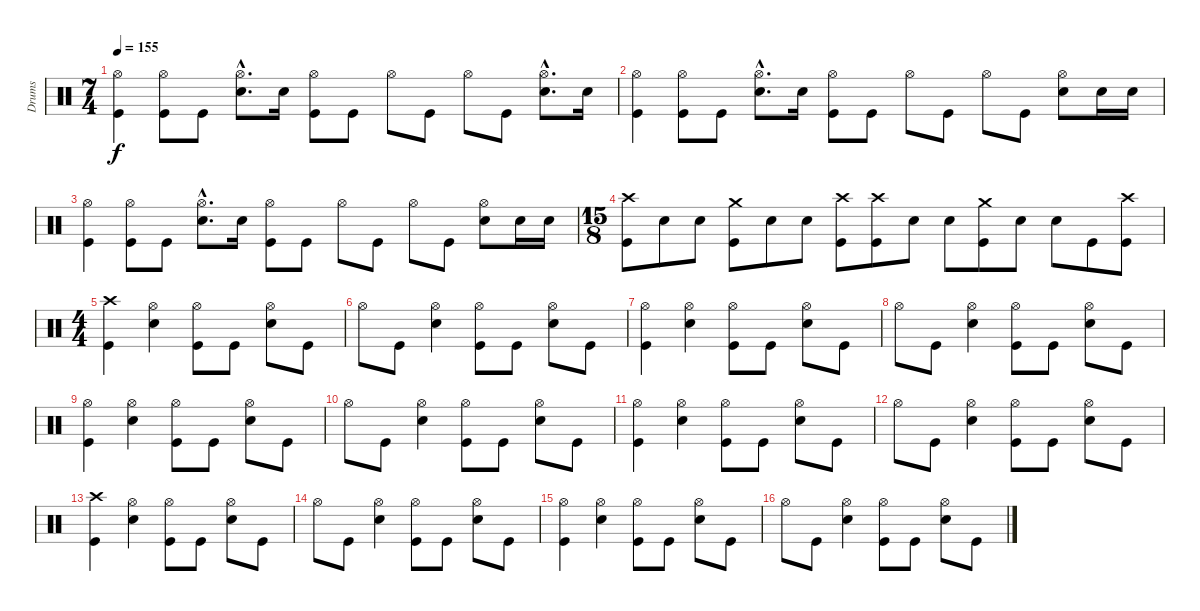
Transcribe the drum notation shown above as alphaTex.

\track ("Drums" "Drums") {instrument percussion}
\staff {score}
\articulation defaults
\ts (7 4)
\tempo 155
\clef neutral
\ks c
("Kick (hit)" "Hi-Hat (open)").4{dy f} ("Kick (hit)" "Hi-Hat (open)").8 "Kick (hit)".8 ("Snare (hit) 2"{hac} "Hi-Hat (open)"{hac}).8{d} "Snare (hit) 2".16 ("Kick (hit)" "Hi-Hat (open)").8 "Kick (hit)".8 "Hi-Hat (open)".8 "Kick (hit)".8 "Hi-Hat (open)".8 "Kick (hit)".8 ("Snare (hit) 2"{hac} "Hi-Hat (open)"{hac}).8{d} "Snare (hit) 2".16 |
("Kick (hit)" "Hi-Hat (open)").4 ("Kick (hit)" "Hi-Hat (open)").8 "Kick (hit)".8 ("Snare (hit) 2"{hac} "Hi-Hat (open)"{hac}).8{d} "Snare (hit) 2".16 ("Kick (hit)" "Hi-Hat (open)").8 "Kick (hit)".8 "Hi-Hat (open)".8 "Kick (hit)".8 "Hi-Hat (open)".8 "Kick (hit)".8 ("Snare (hit) 2" "Hi-Hat (open)").8 "Snare (hit) 2".16 "Snare (hit) 2".16 |
("Kick (hit)" "Hi-Hat (open)").4 ("Kick (hit)" "Hi-Hat (open)").8 "Kick (hit)".8 ("Snare (hit) 2"{hac} "Hi-Hat (open)"{hac}).8{d} "Snare (hit) 2".16 ("Kick (hit)" "Hi-Hat (open)").8 "Kick (hit)".8 "Hi-Hat (open)".8 "Kick (hit)".8 "Hi-Hat (open)".8 "Kick (hit)".8 ("Snare (hit) 2" "Hi-Hat (open)").8 "Snare (hit) 2".16 "Snare (hit) 2".16 |
\ts (15 8)
("Kick (hit)" "Crash high (hit)").8 "Snare (hit) 2".8 "Snare (hit) 2".8 ("Kick (hit)" "Crash medium (hit)").8 "Snare (hit) 2".8 "Snare (hit) 2".8 ("Kick (hit)" "Crash high (hit)").8 ("Kick (hit)" "Crash high (hit)").8 "Snare (hit) 2".8 "Snare (hit) 2".8 ("Kick (hit)" "Crash medium (hit)").8 "Snare (hit) 2".8 "Snare (hit) 2".8 "Kick (hit)".8 ("Kick (hit)" "Crash high (hit)").8 |
\ts (4 4)
("Kick (hit)" "Crash high (hit)").4 ("Snare (hit) 2" "Hi-Hat (open)").4 ("Kick (hit)" "Hi-Hat (open)").8 "Kick (hit)".8 ("Snare (hit) 2" "Hi-Hat (open)").8 "Kick (hit)".8 |
"Hi-Hat (open)".8 "Kick (hit)".8 ("Snare (hit) 2" "Hi-Hat (open)").4 ("Kick (hit)" "Hi-Hat (open)").8 "Kick (hit)".8 ("Snare (hit) 2" "Hi-Hat (open)").8 "Kick (hit)".8 |
("Kick (hit)" "Hi-Hat (open)").4 ("Snare (hit) 2" "Hi-Hat (open)").4 ("Kick (hit)" "Hi-Hat (open)").8 "Kick (hit)".8 ("Snare (hit) 2" "Hi-Hat (open)").8 "Kick (hit)".8 |
"Hi-Hat (open)".8 "Kick (hit)".8 ("Snare (hit) 2" "Hi-Hat (open)").4 ("Kick (hit)" "Hi-Hat (open)").8 "Kick (hit)".8 ("Snare (hit) 2" "Hi-Hat (open)").8 "Kick (hit)".8 |
("Kick (hit)" "Hi-Hat (open)").4 ("Snare (hit) 2" "Hi-Hat (open)").4 ("Kick (hit)" "Hi-Hat (open)").8 "Kick (hit)".8 ("Snare (hit) 2" "Hi-Hat (open)").8 "Kick (hit)".8 |
"Hi-Hat (open)".8 "Kick (hit)".8 ("Snare (hit) 2" "Hi-Hat (open)").4 ("Kick (hit)" "Hi-Hat (open)").8 "Kick (hit)".8 ("Snare (hit) 2" "Hi-Hat (open)").8 "Kick (hit)".8 |
("Kick (hit)" "Hi-Hat (open)").4 ("Snare (hit) 2" "Hi-Hat (open)").4 ("Kick (hit)" "Hi-Hat (open)").8 "Kick (hit)".8 ("Snare (hit) 2" "Hi-Hat (open)").8 "Kick (hit)".8 |
"Hi-Hat (open)".8 "Kick (hit)".8 ("Snare (hit) 2" "Hi-Hat (open)").4 ("Kick (hit)" "Hi-Hat (open)").8 "Kick (hit)".8 ("Snare (hit) 2" "Hi-Hat (open)").8 "Kick (hit)".8 |
("Kick (hit)" "Crash high (hit)").4 ("Snare (hit) 2" "Hi-Hat (open)").4 ("Kick (hit)" "Hi-Hat (open)").8 "Kick (hit)".8 ("Snare (hit) 2" "Hi-Hat (open)").8 "Kick (hit)".8 |
"Hi-Hat (open)".8 "Kick (hit)".8 ("Snare (hit) 2" "Hi-Hat (open)").4 ("Kick (hit)" "Hi-Hat (open)").8 "Kick (hit)".8 ("Snare (hit) 2" "Hi-Hat (open)").8 "Kick (hit)".8 |
("Kick (hit)" "Hi-Hat (open)").4 ("Snare (hit) 2" "Hi-Hat (open)").4 ("Kick (hit)" "Hi-Hat (open)").8 "Kick (hit)".8 ("Snare (hit) 2" "Hi-Hat (open)").8 "Kick (hit)".8 |
"Hi-Hat (open)".8 "Kick (hit)".8 ("Snare (hit) 2" "Hi-Hat (open)").4 ("Kick (hit)" "Hi-Hat (open)").8 "Kick (hit)".8 ("Snare (hit) 2" "Hi-Hat (open)").8 "Kick (hit)".8
